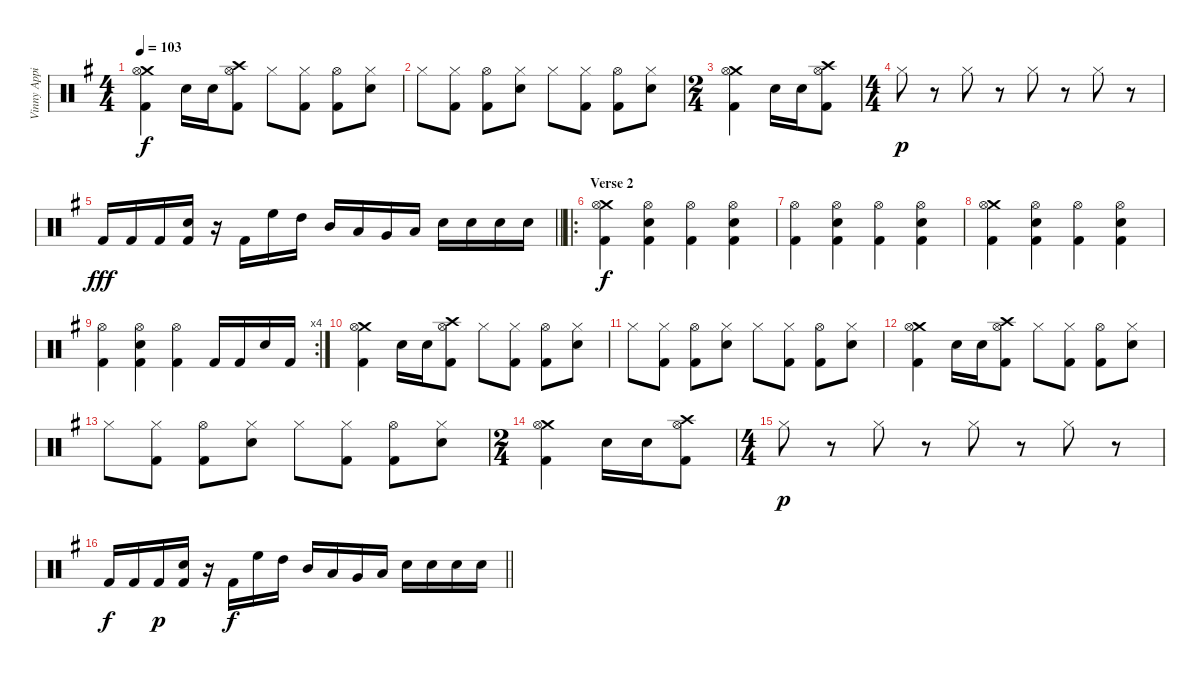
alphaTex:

\track ("Vinny Appice" "Vinny Appi") {instrument percussion}
\staff {score}
\articulation defaults
\ts (4 4)
\tempo 103
\clef neutral
\ks g
("Crash medium (hit)" "Hi-Hat (open)" "Kick (hit) 2").4{dy f} "Snare (hit) 2".16 "Snare (hit) 2".16 ("Crash high (hit)" "Hi-Hat (open)" "Kick (hit) 2").8 "Hi-Hat (closed)".8 ("Hi-Hat (closed)" "Kick (hit) 2").8 ("Hi-Hat (open)" "Kick (hit) 2").8 ("Hi-Hat (closed)" "Snare (hit) 2").8 |
"Hi-Hat (closed)".8 ("Hi-Hat (closed)" "Kick (hit) 2").8 ("Hi-Hat (open)" "Kick (hit) 2").8 ("Hi-Hat (closed)" "Snare (hit) 2").8 "Hi-Hat (closed)".8 ("Hi-Hat (closed)" "Kick (hit) 2").8 ("Hi-Hat (open)" "Kick (hit) 2").8 ("Hi-Hat (closed)" "Snare (hit) 2").8 |
\ts (2 4)
("Crash medium (hit)" "Hi-Hat (open)" "Kick (hit) 2").4 "Snare (hit) 2".16 "Snare (hit) 2".16 ("Crash high (hit)" "Hi-Hat (open)" "Kick (hit) 2").8 |
\ts (4 4)
"Hi-Hat (closed)".8{dy p} r.8 "Hi-Hat (closed)".8 r.8 "Hi-Hat (closed)".8 r.8 "Hi-Hat (closed)".8 r.8 |
\barLineRight lightlight "Kick (hit) 2".16{dy fff} "Kick (hit) 2".16 "Kick (hit) 2".16
("Snare (hit) 2" "Kick (hit) 2").16 r.16 "Kick (hit) 2".16 "High Floor Tom (hit)".16 "High Tom (hit)".16 "Mid Tom (hit)".16 "Low Tom (hit)".16 "Very Low Tom (hit)".16 "Low Floor Tom (hit)".16 "Electric Snare (hit)".16 "Snare (hit) 2".16 "Snare (hit) 2".16 "Snare (hit) 2".16 |
\ro
\section ("" "Verse 2")
("Crash medium (hit)" "Hi-Hat (open)" "Kick (hit) 2").4{dy f} ("Hi-Hat (open)" "Snare (hit) 2" "Kick (hit) 2").4 ("Hi-Hat (open)" "Kick (hit) 2").4 ("Hi-Hat (open)" "Snare (hit) 2" "Kick (hit) 2").4 |
("Hi-Hat (open)" "Kick (hit) 2").4 ("Hi-Hat (open)" "Snare (hit) 2" "Kick (hit) 2").4 ("Hi-Hat (open)" "Kick (hit) 2").4 ("Hi-Hat (open)" "Snare (hit) 2" "Kick (hit) 2").4 |
("Crash medium (hit)" "Hi-Hat (open)" "Kick (hit) 2").4 ("Hi-Hat (open)" "Snare (hit) 2" "Kick (hit) 2").4 ("Hi-Hat (open)" "Kick (hit) 2").4 ("Hi-Hat (open)" "Snare (hit) 2" "Kick (hit) 2").4 |
\rc 4
("Hi-Hat (open)" "Kick (hit) 2").4 ("Hi-Hat (open)" "Snare (hit) 2" "Kick (hit) 2").4 ("Hi-Hat (open)" "Kick (hit) 2").4 "Kick (hit) 2".16 "Kick (hit) 2".16 "Snare (hit) 2".16 "Kick (hit) 2".16 |
("Crash medium (hit)" "Hi-Hat (open)" "Kick (hit) 2").4 "Snare (hit) 2".16 "Snare (hit) 2".16 ("Crash high (hit)" "Hi-Hat (open)" "Kick (hit) 2").8 "Hi-Hat (closed)".8 ("Hi-Hat (closed)" "Kick (hit) 2").8 ("Hi-Hat (open)" "Kick (hit) 2").8 ("Hi-Hat (closed)" "Snare (hit) 2").8 |
"Hi-Hat (closed)".8 ("Hi-Hat (closed)" "Kick (hit) 2").8 ("Hi-Hat (open)" "Kick (hit) 2").8 ("Hi-Hat (closed)" "Snare (hit) 2").8 "Hi-Hat (closed)".8 ("Hi-Hat (closed)" "Kick (hit) 2").8 ("Hi-Hat (open)" "Kick (hit) 2").8 ("Hi-Hat (closed)" "Snare (hit) 2").8 |
("Crash medium (hit)" "Hi-Hat (open)" "Kick (hit) 2").4 "Snare (hit) 2".16 "Snare (hit) 2".16 ("Crash high (hit)" "Hi-Hat (open)" "Kick (hit) 2").8 "Hi-Hat (closed)".8 ("Hi-Hat (closed)" "Kick (hit) 2").8 ("Hi-Hat (open)" "Kick (hit) 2").8 ("Hi-Hat (closed)" "Snare (hit) 2").8 |
"Hi-Hat (closed)".8 ("Hi-Hat (closed)" "Kick (hit) 2").8 ("Hi-Hat (open)" "Kick (hit) 2").8 ("Hi-Hat (closed)" "Snare (hit) 2").8 "Hi-Hat (closed)".8 ("Hi-Hat (closed)" "Kick (hit) 2").8 ("Hi-Hat (open)" "Kick (hit) 2").8 ("Hi-Hat (closed)" "Snare (hit) 2").8 |
\ts (2 4)
("Crash medium (hit)" "Hi-Hat (open)" "Kick (hit) 2").4 "Snare (hit) 2".16 "Snare (hit) 2".16 ("Crash high (hit)" "Hi-Hat (open)" "Kick (hit) 2").8 |
\ts (4 4)
"Hi-Hat (closed)".8{dy p} r.8 "Hi-Hat (closed)".8 r.8 "Hi-Hat (closed)".8 r.8 "Hi-Hat (closed)".8 r.8 |
\barLineRight lightlight "Kick (hit) 2".16{dy f} "Kick (hit) 2".16 "Kick (hit) 2".16{dy p}
("Snare (hit) 2" "Kick (hit) 2").16 r.16 "Kick (hit) 2".16{dy f} "High Floor Tom (hit)".16 "High Tom (hit)".16 "Mid Tom (hit)".16 "Low Tom (hit)".16 "Very Low Tom (hit)".16 "Low Floor Tom (hit)".16 "Electric Snare (hit)".16 "Snare (hit) 2".16 "Snare (hit) 2".16 "Snare (hit) 2".16
